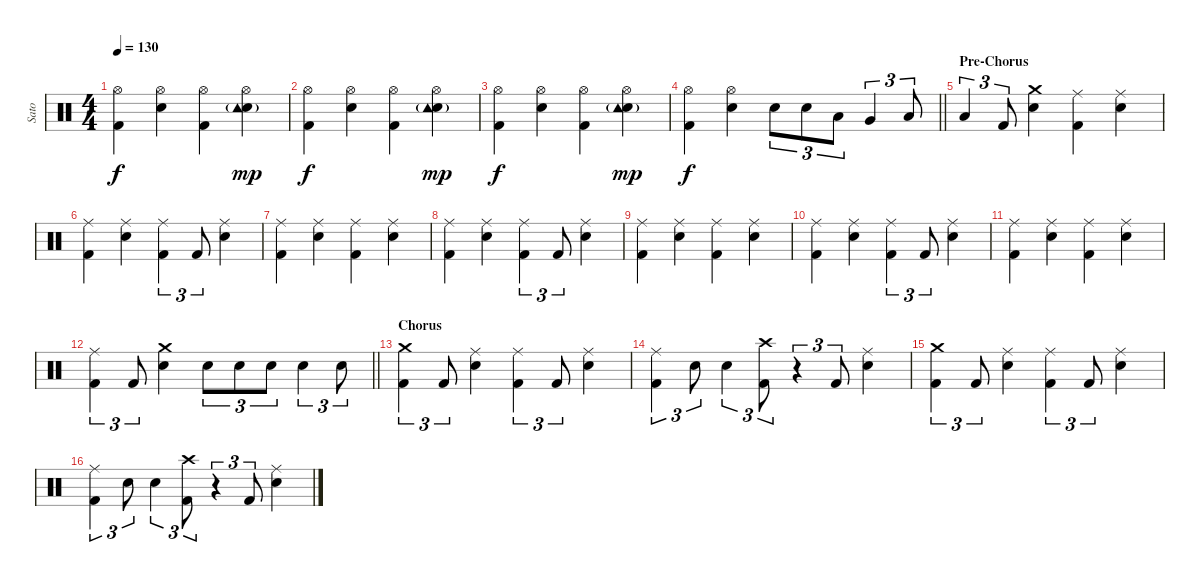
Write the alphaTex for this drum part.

\track ("Sato" "Sato") {instrument percussion}
\staff {score}
\articulation defaults
\ts (4 4)
\tempo 130
\clef neutral
\ks c
("Hi-Hat (open)" "Kick (hit) 2").4{dy f} ("Hi-Hat (open)" "Electric Snare (hit)").4 ("Hi-Hat (open)" "Kick (hit) 2").4 ("Hi-Hat (open)" "Electric Snare (hit)" "Tambourine (hit)"{g}).4{dy mp} |
("Hi-Hat (open)" "Kick (hit) 2").4{dy f} ("Hi-Hat (open)" "Electric Snare (hit)").4 ("Hi-Hat (open)" "Kick (hit) 2").4 ("Hi-Hat (open)" "Electric Snare (hit)" "Tambourine (hit)"{g}).4{dy mp} |
("Hi-Hat (open)" "Kick (hit) 2").4{dy f} ("Hi-Hat (open)" "Electric Snare (hit)").4 ("Hi-Hat (open)" "Kick (hit) 2").4 ("Hi-Hat (open)" "Electric Snare (hit)" "Tambourine (hit)"{g}).4{dy mp} |
\barLineRight lightlight
("Hi-Hat (open)" "Kick (hit) 2").4{dy f} ("Hi-Hat (open)" "Electric Snare (hit)").4 "Electric Snare (hit)".8{tu (3 2)} "Electric Snare (hit)".8{tu (3 2)} "Low Tom (hit)".8{tu (3 2)} "Very Low Tom (hit)".4{tu (3 2)} "Low Floor Tom (hit)".8{tu (3 2)} |
\section ("" "Pre-Chorus")
"Low Floor Tom (hit)".4{tu (3 2)} "Kick (hit) 2".8{tu (3 2)} ("Crash medium (hit)" "Electric Snare (hit)").4 ("Ride (middle)" "Kick (hit) 2").4 ("Ride (middle)" "Electric Snare (hit)").4 |
("Ride (middle)" "Kick (hit) 2").4 ("Ride (middle)" "Electric Snare (hit)").4 ("Ride (middle)" "Kick (hit) 2").4{tu (3 2)} "Kick (hit) 2".8{tu (3 2)} ("Ride (middle)" "Electric Snare (hit)").4 |
("Ride (middle)" "Kick (hit) 2").4 ("Ride (middle)" "Electric Snare (hit)").4 ("Ride (middle)" "Kick (hit) 2").4 ("Ride (middle)" "Electric Snare (hit)").4 |
("Ride (middle)" "Kick (hit) 2").4 ("Ride (middle)" "Electric Snare (hit)").4 ("Ride (middle)" "Kick (hit) 2").4{tu (3 2)} "Kick (hit) 2".8{tu (3 2)} ("Ride (middle)" "Electric Snare (hit)").4 |
("Ride (middle)" "Kick (hit) 2").4 ("Ride (middle)" "Electric Snare (hit)").4 ("Ride (middle)" "Kick (hit) 2").4 ("Ride (middle)" "Electric Snare (hit)").4 |
("Ride (middle)" "Kick (hit) 2").4 ("Ride (middle)" "Electric Snare (hit)").4 ("Ride (middle)" "Kick (hit) 2").4{tu (3 2)} "Kick (hit) 2".8{tu (3 2)} ("Ride (middle)" "Electric Snare (hit)").4 |
("Ride (middle)" "Kick (hit) 2").4 ("Ride (middle)" "Electric Snare (hit)").4 ("Ride (middle)" "Kick (hit) 2").4 ("Ride (middle)" "Electric Snare (hit)").4 |
\barLineRight lightlight
("Ride (middle)" "Kick (hit) 2").4{tu (3 2)} "Kick (hit) 2".8{tu (3 2)} ("Crash medium (hit)" "Electric Snare (hit)").4 "Electric Snare (hit)".8{tu (3 2)} "Electric Snare (hit)".8{tu (3 2)} "Electric Snare (hit)".8{tu (3 2)} "Electric Snare (hit)".4{tu (3 2)} "Electric Snare (hit)".8{tu (3 2)} |
\section ("" "Chorus")
("Crash medium (hit)" "Kick (hit) 2").4{tu (3 2)} "Kick (hit) 2".8{tu (3 2)} ("Ride (middle)" "Electric Snare (hit)").4 ("Ride (middle)" "Kick (hit) 2").4{tu (3 2)} "Kick (hit) 2".8{tu (3 2)} ("Ride (middle)" "Electric Snare (hit)").4 |
("Ride (middle)" "Kick (hit) 2").4{tu (3 2)} "Electric Snare (hit)".8{tu (3 2)} "Electric Snare (hit)".4{tu (3 2)} ("Crash high (hit)" "Kick (hit) 2").8{tu (3 2)} r.4{tu (3 2)} "Kick (hit) 2".8{tu (3 2)} ("Ride (middle)" "Electric Snare (hit)").4 |
("Crash medium (hit)" "Kick (hit) 2").4{tu (3 2)} "Kick (hit) 2".8{tu (3 2)} ("Ride (middle)" "Electric Snare (hit)").4 ("Ride (middle)" "Kick (hit) 2").4{tu (3 2)} "Kick (hit) 2".8{tu (3 2)} ("Ride (middle)" "Electric Snare (hit)").4 |
("Ride (middle)" "Kick (hit) 2").4{tu (3 2)} "Electric Snare (hit)".8{tu (3 2)} "Electric Snare (hit)".4{tu (3 2)} ("Crash high (hit)" "Kick (hit) 2").8{tu (3 2)} r.4{tu (3 2)} "Kick (hit) 2".8{tu (3 2)} ("Ride (middle)" "Electric Snare (hit)").4
